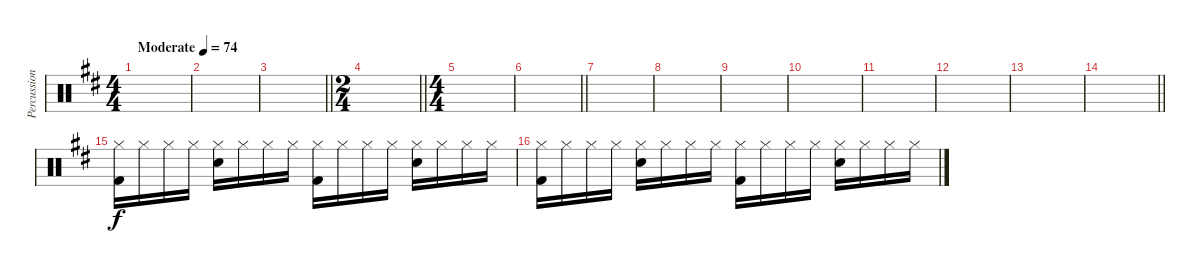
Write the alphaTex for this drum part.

\track ("Percussion" "Percussion") {instrument percussion}
\staff {score}
\articulation defaults
\ts (4 4)
\tempo (74 "Moderate")
\clef neutral
\ks d
|
|
\barLineRight lightlight
|
\ts (2 4)
\barLineRight lightlight
|
\ts (4 4)
|
\barLineRight lightlight
|
|
|
|
|
|
|
|
\barLineRight lightlight
|
("Hi-Hat (closed)" "Kick (hit) 2").16 "Hi-Hat (closed)".16 "Hi-Hat (closed)".16 "Hi-Hat (closed)".16 ("Hi-Hat (closed)" "Snare (hit) 2").16 "Hi-Hat (closed)".16 "Hi-Hat (closed)".16 "Hi-Hat (closed)".16 ("Hi-Hat (closed)" "Kick (hit) 2").16 "Hi-Hat (closed)".16 "Hi-Hat (closed)".16 "Hi-Hat (closed)".16 ("Hi-Hat (closed)" "Snare (hit) 2").16 "Hi-Hat (closed)".16 "Hi-Hat (closed)".16 "Hi-Hat (closed)".16 |
("Hi-Hat (closed)" "Kick (hit) 2").16 "Hi-Hat (closed)".16 "Hi-Hat (closed)".16 "Hi-Hat (closed)".16 ("Hi-Hat (closed)" "Snare (hit) 2").16 "Hi-Hat (closed)".16 "Hi-Hat (closed)".16 "Hi-Hat (closed)".16 ("Hi-Hat (closed)" "Kick (hit) 2").16 "Hi-Hat (closed)".16 "Hi-Hat (closed)".16 "Hi-Hat (closed)".16 ("Hi-Hat (closed)" "Snare (hit) 2").16 "Hi-Hat (closed)".16 "Hi-Hat (closed)".16 "Hi-Hat (closed)".16
